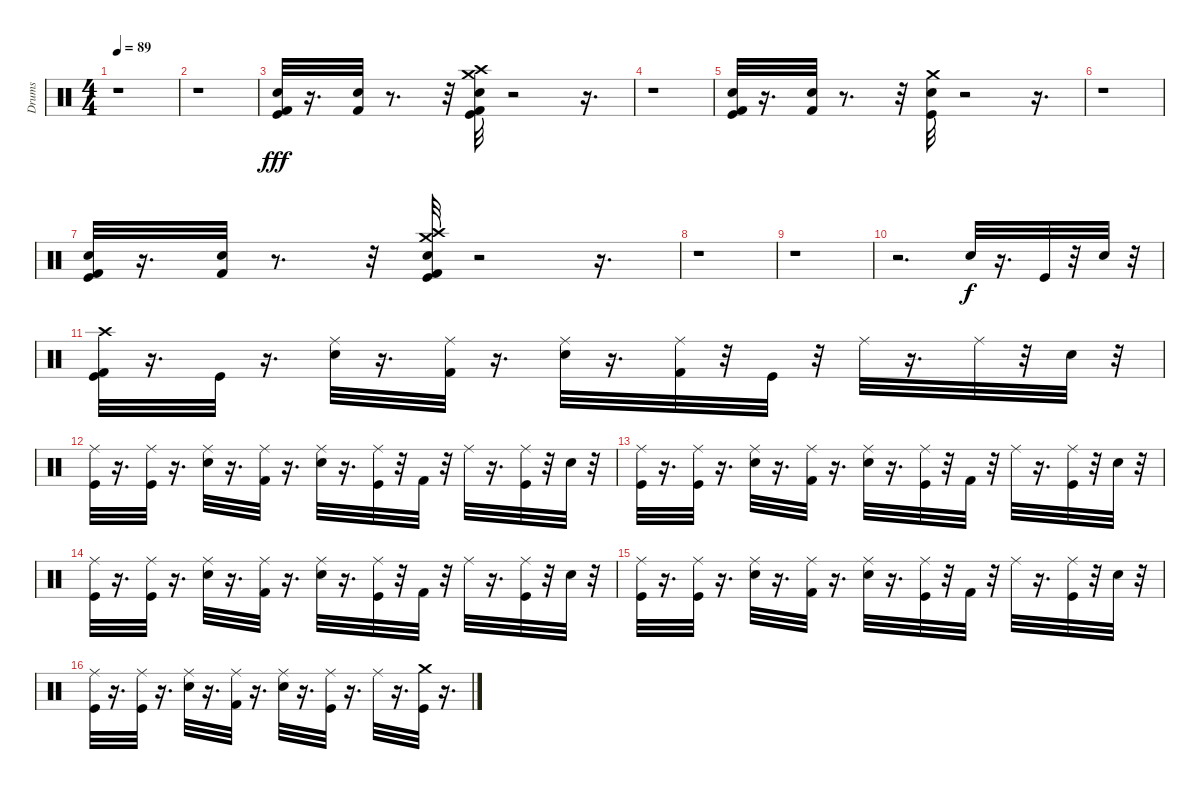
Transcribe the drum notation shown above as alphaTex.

\track ("Drums" "Drums") {instrument percussion}
\staff {score}
\articulation defaults
\ts (4 4)
\tempo 89
\clef neutral
\ks c
r.1{dy f} |
r.1 |
("Electric Snare (hit)" "Kick (hit)" "Kick (hit) 2").32{dy fff} r.16{d} ("Kick (hit) 2" "Electric Snare (hit)").32 r.8{d} r.32 ("Electric Snare (hit)" "Crash high (hit)" "Kick (hit) 2" "Kick (hit)" "Crash medium (hit)").32 r.2 r.16{d} |
r.1 |
("Electric Snare (hit)" "Kick (hit)" "Kick (hit) 2").32 r.16{d} ("Kick (hit) 2" "Electric Snare (hit)").32 r.8{d} r.32 ("Electric Snare (hit)" "Kick (hit)" "Crash medium (hit)").32 r.2 r.16{d} |
r.1 |
("Electric Snare (hit)" "Kick (hit)" "Kick (hit) 2").32 r.16{d} ("Kick (hit) 2" "Electric Snare (hit)").32 r.8{d} r.32 ("Snare (hit) 2" "Crash high (hit)" "Kick (hit) 2" "Kick (hit)" "Crash medium (hit)").32 r.2 r.16{d} |
r.1 |
r.1 |
r.2{d} "Electric Snare (hit)".32{dy f} r.16{d} "Kick (hit)".32 r.32 "Electric Snare (hit)".32 r.32 |
("Kick (hit)" "Kick (hit) 2" "Crash high (hit)").32 r.16{d} "Kick (hit)".32 r.16{d} ("Ride (middle)" "Electric Snare (hit)").32 r.16{d} ("Ride (middle)" "Kick (hit) 2").32 r.16{d} ("Ride (middle)" "Electric Snare (hit)").32 r.16{d} ("Ride (middle)" "Kick (hit) 2").32 r.32 "Kick (hit)".32 r.32 "Ride (middle)".32 r.16{d} "Ride (middle)".32 r.32 "Electric Snare (hit)".32 r.32 |
("Kick (hit)" "Ride (middle)").32 r.16{d} ("Kick (hit)" "Ride (middle)").32 r.16{d} ("Electric Snare (hit)" "Ride (middle)").32 r.16{d} ("Kick (hit) 2" "Ride (middle)").32 r.16{d} ("Electric Snare (hit)" "Ride (middle)").32 r.16{d} ("Kick (hit)" "Ride (middle)").32 r.32 "Kick (hit) 2".32 r.32 "Ride (middle)".32 r.16{d} ("Kick (hit)" "Ride (middle)").32 r.32 "Electric Snare (hit)".32 r.32 |
("Kick (hit)" "Ride (middle)").32 r.16{d} ("Kick (hit)" "Ride (middle)").32 r.16{d} ("Electric Snare (hit)" "Ride (middle)").32 r.16{d} ("Kick (hit) 2" "Ride (middle)").32 r.16{d} ("Electric Snare (hit)" "Ride (middle)").32 r.16{d} ("Kick (hit)" "Ride (middle)").32 r.32 "Kick (hit) 2".32 r.32 "Ride (middle)".32 r.16{d} ("Kick (hit)" "Ride (middle)").32 r.32 "Electric Snare (hit)".32 r.32 |
("Kick (hit)" "Ride (middle)").32 r.16{d} ("Kick (hit)" "Ride (middle)").32 r.16{d} ("Electric Snare (hit)" "Ride (middle)").32 r.16{d} ("Kick (hit) 2" "Ride (middle)").32 r.16{d} ("Electric Snare (hit)" "Ride (middle)").32 r.16{d} ("Kick (hit)" "Ride (middle)").32 r.32 "Kick (hit) 2".32 r.32 "Ride (middle)".32 r.16{d} ("Kick (hit)" "Ride (middle)").32 r.32 "Electric Snare (hit)".32 r.32 |
("Kick (hit)" "Ride (middle)").32 r.16{d} ("Kick (hit)" "Ride (middle)").32 r.16{d} ("Electric Snare (hit)" "Ride (middle)").32 r.16{d} ("Kick (hit) 2" "Ride (middle)").32 r.16{d} ("Electric Snare (hit)" "Ride (middle)").32 r.16{d} ("Kick (hit)" "Ride (middle)").32 r.32 "Kick (hit) 2".32 r.32 "Ride (middle)".32 r.16{d} ("Kick (hit)" "Ride (middle)").32 r.32 "Electric Snare (hit)".32 r.32 |
("Kick (hit)" "Ride (middle)").32 r.16{d} ("Kick (hit)" "Ride (middle)").32 r.16{d} ("Electric Snare (hit)" "Ride (middle)").32 r.16{d} ("Kick (hit) 2" "Ride (middle)").32 r.16{d} ("Electric Snare (hit)" "Ride (middle)").32 r.16{d} ("Kick (hit)" "Ride (middle)").32 r.16{d} "Ride (middle)".32 r.16{d} ("Crash medium (hit)" "Kick (hit)").32 r.16{d}
